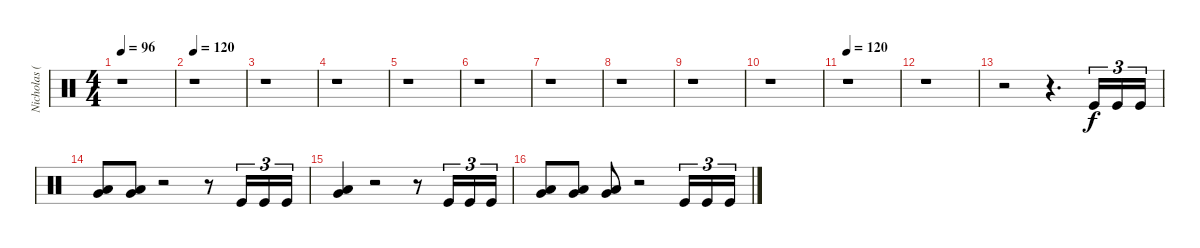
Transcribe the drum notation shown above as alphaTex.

\track ("Nicholas (Drums)" "Nicholas (") {instrument percussion}
\staff {score}
\articulation defaults
\ts (4 4)
\tempo 96
\clef neutral
\ks c
r.1{dy f} |
\tempo 120
r.1 |
r.1 |
r.1 |
r.1 |
r.1 |
r.1 |
r.1 |
r.1 |
r.1 |
\tempo 120
r.1 |
r.1 |
r.2 r.4{d} "Kick (hit)".16{tu (3 2)} "Kick (hit)".16{tu (3 2)} "Kick (hit)".16{tu (3 2)} |
("Low Tom (hit)" "Very Low Tom (hit)").8{bu 60} ("Low Tom (hit)" "Very Low Tom (hit)").8{bu 60} r.2 r.8 "Kick (hit)".16{tu (3 2)} "Kick (hit)".16{tu (3 2)} "Kick (hit)".16{tu (3 2)} |
("Low Tom (hit)" "Very Low Tom (hit)").4{bu 60} r.2 r.8 "Kick (hit)".16{tu (3 2)} "Kick (hit)".16{tu (3 2)} "Kick (hit)".16{tu (3 2)} |
("Low Tom (hit)" "Very Low Tom (hit)").8{bu 60} ("Low Tom (hit)" "Very Low Tom (hit)").8{bu 60} ("Low Tom (hit)" "Very Low Tom (hit)").8{bu 60} r.2 "Kick (hit)".16{tu (3 2)} "Kick (hit)".16{tu (3 2)} "Kick (hit)".16{tu (3 2)}
